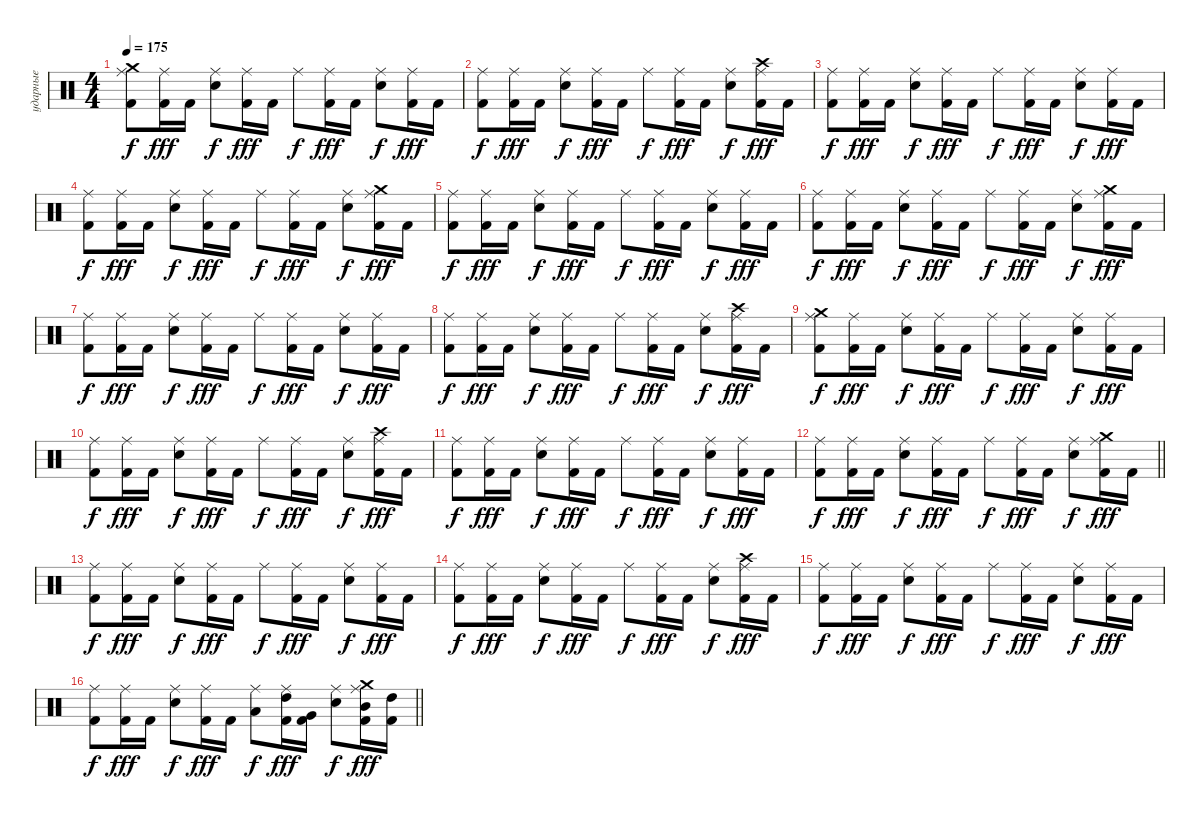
\track ("ударные" "ударные") {instrument percussion}
\staff {score}
\articulation defaults
\ts (4 4)
\tempo 175
\clef neutral
\ks c
("Kick (hit) 2" "Crash medium (hit)" "Ride (middle)").8{dy f} ("Kick (hit) 2" "Ride (middle)").16{dy fff} "Kick (hit) 2".16 ("Snare (hit) 2" "Ride (middle)").8{dy f} ("Kick (hit) 2" "Ride (middle)").16{dy fff} "Kick (hit) 2".16 "Ride (middle)".8{dy f} ("Kick (hit) 2" "Ride (middle)").16{dy fff} "Kick (hit) 2".16 ("Snare (hit) 2" "Ride (middle)").8{dy f} ("Kick (hit) 2" "Ride (middle)").16{dy fff} "Kick (hit) 2".16 |
("Kick (hit) 2" "Ride (middle)").8{dy f} ("Kick (hit) 2" "Ride (middle)").16{dy fff} "Kick (hit) 2".16 ("Snare (hit) 2" "Ride (middle)").8{dy f} ("Kick (hit) 2" "Ride (middle)").16{dy fff} "Kick (hit) 2".16 "Ride (middle)".8{dy f} ("Kick (hit) 2" "Ride (middle)").16{dy fff} "Kick (hit) 2".16 ("Snare (hit) 2" "Ride (middle)").8{dy f} ("Kick (hit) 2" "Crash high (hit)" "Ride (middle)").16{dy fff} "Kick (hit) 2".16 |
("Kick (hit) 2" "Ride (middle)").8{dy f} ("Kick (hit) 2" "Ride (middle)").16{dy fff} "Kick (hit) 2".16 ("Snare (hit) 2" "Ride (middle)").8{dy f} ("Kick (hit) 2" "Ride (middle)").16{dy fff} "Kick (hit) 2".16 "Ride (middle)".8{dy f} ("Kick (hit) 2" "Ride (middle)").16{dy fff} "Kick (hit) 2".16 ("Snare (hit) 2" "Ride (middle)").8{dy f} ("Kick (hit) 2" "Ride (middle)").16{dy fff} "Kick (hit) 2".16 |
("Kick (hit) 2" "Ride (middle)").8{dy f} ("Kick (hit) 2" "Ride (middle)").16{dy fff} "Kick (hit) 2".16 ("Snare (hit) 2" "Ride (middle)").8{dy f} ("Kick (hit) 2" "Ride (middle)").16{dy fff} "Kick (hit) 2".16 "Ride (middle)".8{dy f} ("Kick (hit) 2" "Ride (middle)").16{dy fff} "Kick (hit) 2".16 ("Snare (hit) 2" "Ride (middle)").8{dy f} ("Kick (hit) 2" "Crash medium (hit)" "Ride (middle)").16{dy fff} "Kick (hit) 2".16 |
("Kick (hit) 2" "Ride (middle)").8{dy f} ("Kick (hit) 2" "Ride (middle)").16{dy fff} "Kick (hit) 2".16 ("Snare (hit) 2" "Ride (middle)").8{dy f} ("Kick (hit) 2" "Ride (middle)").16{dy fff} "Kick (hit) 2".16 "Ride (middle)".8{dy f} ("Kick (hit) 2" "Ride (middle)").16{dy fff} "Kick (hit) 2".16 ("Snare (hit) 2" "Ride (middle)").8{dy f} ("Kick (hit) 2" "Ride (middle)").16{dy fff} "Kick (hit) 2".16 |
("Kick (hit) 2" "Ride (middle)").8{dy f} ("Kick (hit) 2" "Ride (middle)").16{dy fff} "Kick (hit) 2".16 ("Snare (hit) 2" "Ride (middle)").8{dy f} ("Kick (hit) 2" "Ride (middle)").16{dy fff} "Kick (hit) 2".16 "Ride (middle)".8{dy f} ("Kick (hit) 2" "Ride (middle)").16{dy fff} "Kick (hit) 2".16 ("Snare (hit) 2" "Ride (middle)").8{dy f} ("Kick (hit) 2" "Crash medium (hit)" "Ride (middle)").16{dy fff} "Kick (hit) 2".16 |
("Kick (hit) 2" "Ride (middle)").8{dy f} ("Kick (hit) 2" "Ride (middle)").16{dy fff} "Kick (hit) 2".16 ("Snare (hit) 2" "Ride (middle)").8{dy f} ("Kick (hit) 2" "Ride (middle)").16{dy fff} "Kick (hit) 2".16 "Ride (middle)".8{dy f} ("Kick (hit) 2" "Ride (middle)").16{dy fff} "Kick (hit) 2".16 ("Snare (hit) 2" "Ride (middle)").8{dy f} ("Kick (hit) 2" "Ride (middle)").16{dy fff} "Kick (hit) 2".16 |
("Kick (hit) 2" "Ride (middle)").8{dy f} ("Kick (hit) 2" "Ride (middle)").16{dy fff} "Kick (hit) 2".16 ("Snare (hit) 2" "Ride (middle)").8{dy f} ("Kick (hit) 2" "Ride (middle)").16{dy fff} "Kick (hit) 2".16 "Ride (middle)".8{dy f} ("Kick (hit) 2" "Ride (middle)").16{dy fff} "Kick (hit) 2".16 ("Snare (hit) 2" "Ride (middle)").8{dy f} ("Kick (hit) 2" "Crash high (hit)" "Ride (middle)").16{dy fff} "Kick (hit) 2".16 |
("Kick (hit) 2" "Crash medium (hit)" "Ride (middle)").8{dy f} ("Kick (hit) 2" "Ride (middle)").16{dy fff} "Kick (hit) 2".16 ("Snare (hit) 2" "Ride (middle)").8{dy f} ("Kick (hit) 2" "Ride (middle)").16{dy fff} "Kick (hit) 2".16 "Ride (middle)".8{dy f} ("Kick (hit) 2" "Ride (middle)").16{dy fff} "Kick (hit) 2".16 ("Snare (hit) 2" "Ride (middle)").8{dy f} ("Kick (hit) 2" "Ride (middle)").16{dy fff} "Kick (hit) 2".16 |
("Kick (hit) 2" "Ride (middle)").8{dy f} ("Kick (hit) 2" "Ride (middle)").16{dy fff} "Kick (hit) 2".16 ("Snare (hit) 2" "Ride (middle)").8{dy f} ("Kick (hit) 2" "Ride (middle)").16{dy fff} "Kick (hit) 2".16 "Ride (middle)".8{dy f} ("Kick (hit) 2" "Ride (middle)").16{dy fff} "Kick (hit) 2".16 ("Snare (hit) 2" "Ride (middle)").8{dy f} ("Kick (hit) 2" "Crash high (hit)" "Ride (middle)").16{dy fff} "Kick (hit) 2".16 |
("Kick (hit) 2" "Ride (middle)").8{dy f} ("Kick (hit) 2" "Ride (middle)").16{dy fff} "Kick (hit) 2".16 ("Snare (hit) 2" "Ride (middle)").8{dy f} ("Kick (hit) 2" "Ride (middle)").16{dy fff} "Kick (hit) 2".16 "Ride (middle)".8{dy f} ("Kick (hit) 2" "Ride (middle)").16{dy fff} "Kick (hit) 2".16 ("Snare (hit) 2" "Ride (middle)").8{dy f} ("Kick (hit) 2" "Ride (middle)").16{dy fff} "Kick (hit) 2".16 |
\barLineRight lightlight
("Kick (hit) 2" "Ride (middle)").8{dy f} ("Kick (hit) 2" "Ride (middle)").16{dy fff} "Kick (hit) 2".16 ("Snare (hit) 2" "Ride (middle)").8{dy f} ("Kick (hit) 2" "Ride (middle)").16{dy fff} "Kick (hit) 2".16 "Ride (middle)".8{dy f} ("Kick (hit) 2" "Ride (middle)").16{dy fff} "Kick (hit) 2".16 ("Snare (hit) 2" "Ride (middle)").8{dy f} ("Kick (hit) 2" "Crash medium (hit)" "Ride (middle)").16{dy fff} "Kick (hit) 2".16 |
\section ("" "")
("Kick (hit) 2" "Ride (middle)").8{dy f} ("Kick (hit) 2" "Ride (middle)").16{dy fff} "Kick (hit) 2".16 ("Snare (hit) 2" "Ride (middle)").8{dy f} ("Kick (hit) 2" "Ride (middle)").16{dy fff} "Kick (hit) 2".16 "Ride (middle)".8{dy f} ("Kick (hit) 2" "Ride (middle)").16{dy fff} "Kick (hit) 2".16 ("Snare (hit) 2" "Ride (middle)").8{dy f} ("Kick (hit) 2" "Ride (middle)").16{dy fff} "Kick (hit) 2".16 |
("Kick (hit) 2" "Ride (middle)").8{dy f} ("Kick (hit) 2" "Ride (middle)").16{dy fff} "Kick (hit) 2".16 ("Snare (hit) 2" "Ride (middle)").8{dy f} ("Kick (hit) 2" "Ride (middle)").16{dy fff} "Kick (hit) 2".16 "Ride (middle)".8{dy f} ("Kick (hit) 2" "Ride (middle)").16{dy fff} "Kick (hit) 2".16 ("Snare (hit) 2" "Ride (middle)").8{dy f} ("Kick (hit) 2" "Crash high (hit)" "Ride (middle)").16{dy fff} "Kick (hit) 2".16 |
("Kick (hit) 2" "Ride (middle)").8{dy f} ("Kick (hit) 2" "Ride (middle)").16{dy fff} "Kick (hit) 2".16 ("Snare (hit) 2" "Ride (middle)").8{dy f} ("Kick (hit) 2" "Ride (middle)").16{dy fff} "Kick (hit) 2".16 "Ride (middle)".8{dy f} ("Kick (hit) 2" "Ride (middle)").16{dy fff} "Kick (hit) 2".16 ("Snare (hit) 2" "Ride (middle)").8{dy f} ("Kick (hit) 2" "Ride (middle)").16{dy fff} "Kick (hit) 2".16 |
\barLineRight lightlight
("Kick (hit) 2" "Ride (middle)").8{dy f} ("Kick (hit) 2" "Ride (middle)").16{dy fff} "Kick (hit) 2".16 ("Snare (hit) 2" "Ride (middle)").8{dy f} ("Kick (hit) 2" "Ride (middle)").16{dy fff} "Kick (hit) 2".16 ("Low Tom (hit)" "Ride (middle)").8{dy f} ("High Tom (hit)" "Kick (hit) 2" "Ride (middle)").16{dy fff} ("Very Low Tom (hit)" "Kick (hit) 2").16 ("Snare (hit) 2" "Ride (middle)").8{dy f} ("Mid Tom (hit)" "Kick (hit) 2" "Crash medium (hit)" "Ride (middle)").16{dy fff} ("High Tom (hit)" "Kick (hit) 2").16
